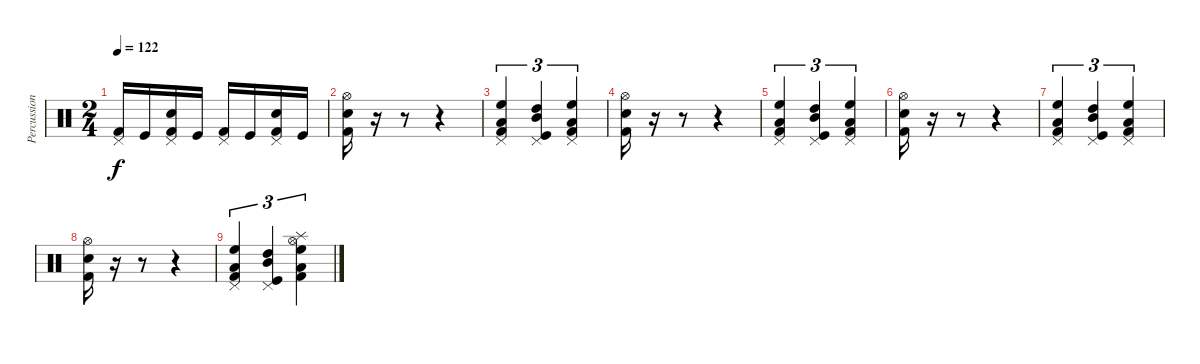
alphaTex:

\track ("Percussions" "Percussion") {instrument percussion}
\staff {score}
\articulation defaults
\ts (2 4)
\tempo 122
\clef neutral
\ks c
("Pedal Hi-Hat (hit)" "Kick (hit) 2").16{dy f} "Kick (hit)".16 ("Pedal Hi-Hat (hit)" "Snare (hit) 2" "Kick (hit) 2").16 "Kick (hit)".16 ("Pedal Hi-Hat (hit)" "Kick (hit) 2").16 "Kick (hit)".16 ("Pedal Hi-Hat (hit)" "Snare (hit) 2" "Kick (hit) 2").16 "Kick (hit)".16 |
("Hi-Hat (open)" "Snare (hit) 2" "Kick (hit) 2").16 r.16 r.8 r.4 |
("Pedal Hi-Hat (hit)" "High Floor Tom (hit)" "Low Tom (hit)" "Kick (hit) 2").4{tu (3 2)} ("Pedal Hi-Hat (hit)" "High Tom (hit)" "Mid Tom (hit)" "Kick (hit)").4{tu (3 2)} ("Pedal Hi-Hat (hit)" "High Floor Tom (hit)" "Low Tom (hit)" "Kick (hit) 2").4{tu (3 2)} |
("Hi-Hat (open)" "Snare (hit) 2" "Kick (hit) 2").16 r.16 r.8 r.4 |
("Pedal Hi-Hat (hit)" "High Floor Tom (hit)" "Low Tom (hit)" "Kick (hit) 2").4{tu (3 2)} ("Pedal Hi-Hat (hit)" "High Tom (hit)" "Mid Tom (hit)" "Kick (hit)").4{tu (3 2)} ("Pedal Hi-Hat (hit)" "High Floor Tom (hit)" "Low Tom (hit)" "Kick (hit) 2").4{tu (3 2)} |
("Hi-Hat (open)" "Snare (hit) 2" "Kick (hit) 2").16 r.16 r.8 r.4 |
("Pedal Hi-Hat (hit)" "High Floor Tom (hit)" "Low Tom (hit)" "Kick (hit) 2").4{tu (3 2)} ("Pedal Hi-Hat (hit)" "High Tom (hit)" "Mid Tom (hit)" "Kick (hit)").4{tu (3 2)} ("Pedal Hi-Hat (hit)" "High Floor Tom (hit)" "Low Tom (hit)" "Kick (hit) 2").4{tu (3 2)} |
("Hi-Hat (open)" "Snare (hit) 2" "Kick (hit) 2").16 r.16 r.8 r.4 |
("Pedal Hi-Hat (hit)" "High Floor Tom (hit)" "Low Tom (hit)" "Kick (hit) 2").4{tu (3 2)} ("Pedal Hi-Hat (hit)" "High Tom (hit)" "Mid Tom (hit)" "Kick (hit)").4{tu (3 2)} ("Hi-Hat (open)" "High Floor Tom (hit)" "Low Tom (hit)" "Splash (hit)" "Kick (hit) 2").4{tu (3 2)}
